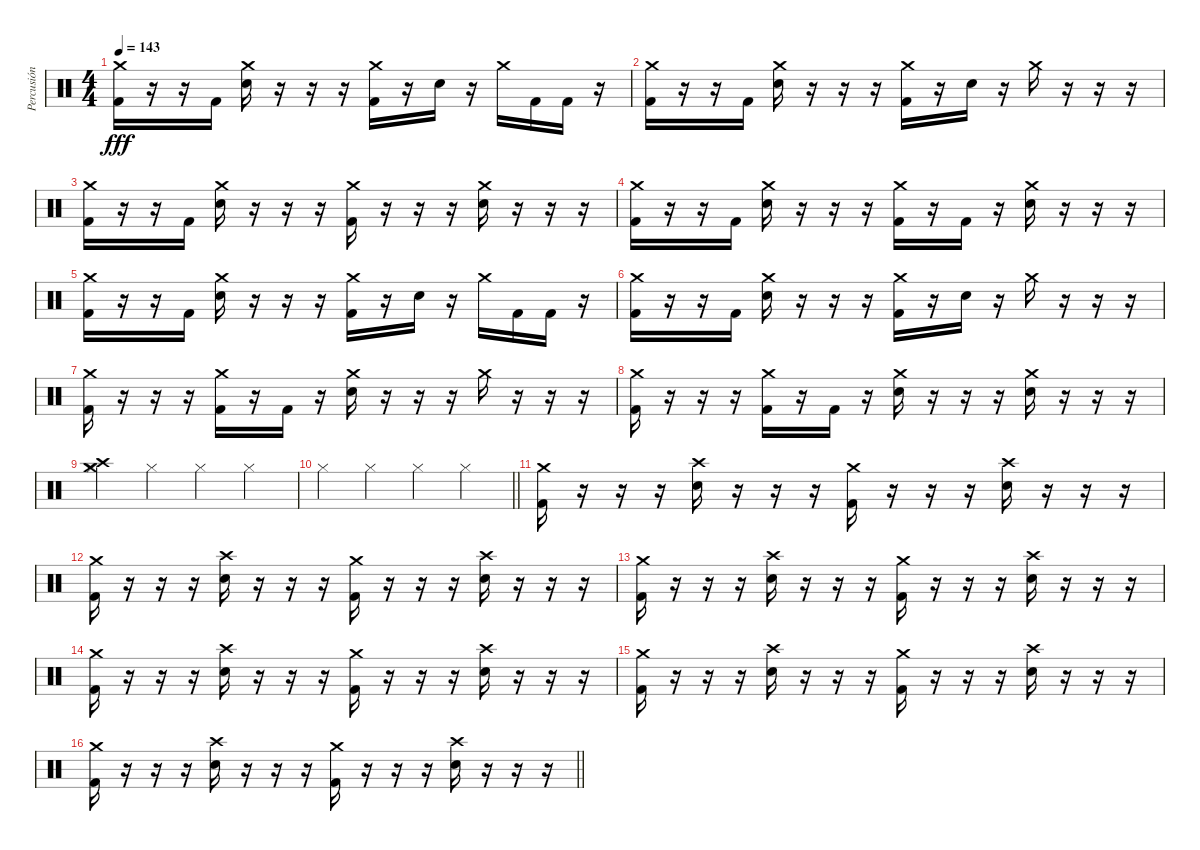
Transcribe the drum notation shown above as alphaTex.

\track ("Percusión" "Percusión") {instrument percussion}
\staff {score}
\articulation defaults
\ts (4 4)
\tempo 143
\clef neutral
\ks c
("Crash medium (hit)" "Kick (hit) 2").16{dy fff} r.16 r.16 "Kick (hit) 2".16 ("Crash medium (hit)" "Snare (hit) 2").16 r.16 r.16 r.16 ("Crash medium (hit)" "Kick (hit) 2").16 r.16 "Snare (hit) 2".16 r.16 "Crash medium (hit)".16 "Kick (hit) 2".16 "Kick (hit) 2".16 r.16 |
("Crash medium (hit)" "Kick (hit) 2").16 r.16 r.16 "Kick (hit) 2".16 ("Crash medium (hit)" "Snare (hit) 2").16 r.16 r.16 r.16 ("Crash medium (hit)" "Kick (hit) 2").16 r.16 "Snare (hit) 2".16 r.16 "Crash medium (hit)".16 r.16 r.16 r.16 |
("Crash medium (hit)" "Kick (hit) 2").16 r.16 r.16 "Kick (hit) 2".16 ("Crash medium (hit)" "Snare (hit) 2").16 r.16 r.16 r.16 ("Crash medium (hit)" "Kick (hit) 2").16 r.16 r.16 r.16 ("Crash medium (hit)" "Snare (hit) 2").16 r.16 r.16 r.16 |
("Crash medium (hit)" "Kick (hit) 2").16 r.16 r.16 "Kick (hit) 2".16 ("Crash medium (hit)" "Snare (hit) 2").16 r.16 r.16 r.16 ("Crash medium (hit)" "Kick (hit) 2").16 r.16 "Kick (hit) 2".16 r.16 ("Crash medium (hit)" "Snare (hit) 2").16 r.16 r.16 r.16 |
("Crash medium (hit)" "Kick (hit) 2").16 r.16 r.16 "Kick (hit) 2".16 ("Crash medium (hit)" "Snare (hit) 2").16 r.16 r.16 r.16 ("Crash medium (hit)" "Kick (hit) 2").16 r.16 "Snare (hit) 2".16 r.16 "Crash medium (hit)".16 "Kick (hit) 2".16 "Kick (hit) 2".16 r.16 |
("Crash medium (hit)" "Kick (hit) 2").16 r.16 r.16 "Kick (hit) 2".16 ("Crash medium (hit)" "Snare (hit) 2").16 r.16 r.16 r.16 ("Crash medium (hit)" "Kick (hit) 2").16 r.16 "Snare (hit) 2".16 r.16 "Crash medium (hit)".16 r.16 r.16 r.16 |
("Crash medium (hit)" "Kick (hit) 2").16 r.16 r.16 r.16 ("Crash medium (hit)" "Kick (hit) 2").16 r.16 "Kick (hit) 2".16 r.16 ("Crash medium (hit)" "Snare (hit) 2").16 r.16 r.16 r.16 "Crash medium (hit)".16 r.16 r.16 r.16 |
("Crash medium (hit)" "Kick (hit) 2").16 r.16 r.16 r.16 ("Crash medium (hit)" "Kick (hit) 2").16 r.16 "Kick (hit) 2".16 r.16 ("Crash medium (hit)" "Snare (hit) 2").16 r.16 r.16 r.16 ("Crash medium (hit)" "Snare (hit) 2").16 r.16 r.16 r.16 |
("Hi-Hat (closed)" "Crash medium (hit)" "Crash high (hit)").4 "Hi-Hat (closed)".4 "Hi-Hat (closed)".4 "Hi-Hat (closed)".4 |
\barLineRight lightlight "Hi-Hat (closed)".4 "Hi-Hat (closed)".4 "Hi-Hat (closed)".4 "Hi-Hat (closed)".4
|
("Kick (hit) 2" "Crash medium (hit)").16 r.16 r.16 r.16 ("Snare (hit) 2" "Crash high (hit)").16 r.16 r.16 r.16 ("Kick (hit) 2" "Crash medium (hit)").16 r.16 r.16 r.16 ("Snare (hit) 2" "Crash high (hit)").16 r.16 r.16 r.16 |
("Kick (hit) 2" "Crash medium (hit)").16 r.16 r.16 r.16 ("Snare (hit) 2" "Crash high (hit)").16 r.16 r.16 r.16 ("Kick (hit) 2" "Crash medium (hit)").16 r.16 r.16 r.16 ("Snare (hit) 2" "Crash high (hit)").16 r.16 r.16 r.16 |
("Kick (hit) 2" "Crash medium (hit)").16 r.16 r.16 r.16 ("Snare (hit) 2" "Crash high (hit)").16 r.16 r.16 r.16 ("Kick (hit) 2" "Crash medium (hit)").16 r.16 r.16 r.16 ("Snare (hit) 2" "Crash high (hit)").16 r.16 r.16 r.16 |
("Kick (hit) 2" "Crash medium (hit)").16 r.16 r.16 r.16 ("Snare (hit) 2" "Crash high (hit)").16 r.16 r.16 r.16 ("Kick (hit) 2" "Crash medium (hit)").16 r.16 r.16 r.16 ("Snare (hit) 2" "Crash high (hit)").16 r.16 r.16 r.16 |
("Kick (hit) 2" "Crash medium (hit)").16 r.16 r.16 r.16 ("Snare (hit) 2" "Crash high (hit)").16 r.16 r.16 r.16 ("Kick (hit) 2" "Crash medium (hit)").16 r.16 r.16 r.16 ("Snare (hit) 2" "Crash high (hit)").16 r.16 r.16 r.16 |
\barLineRight lightlight
("Kick (hit) 2" "Crash medium (hit)").16 r.16 r.16 r.16 ("Snare (hit) 2" "Crash high (hit)").16 r.16 r.16 r.16 ("Kick (hit) 2" "Crash medium (hit)").16 r.16 r.16 r.16 ("Snare (hit) 2" "Crash high (hit)").16 r.16 r.16 r.16
